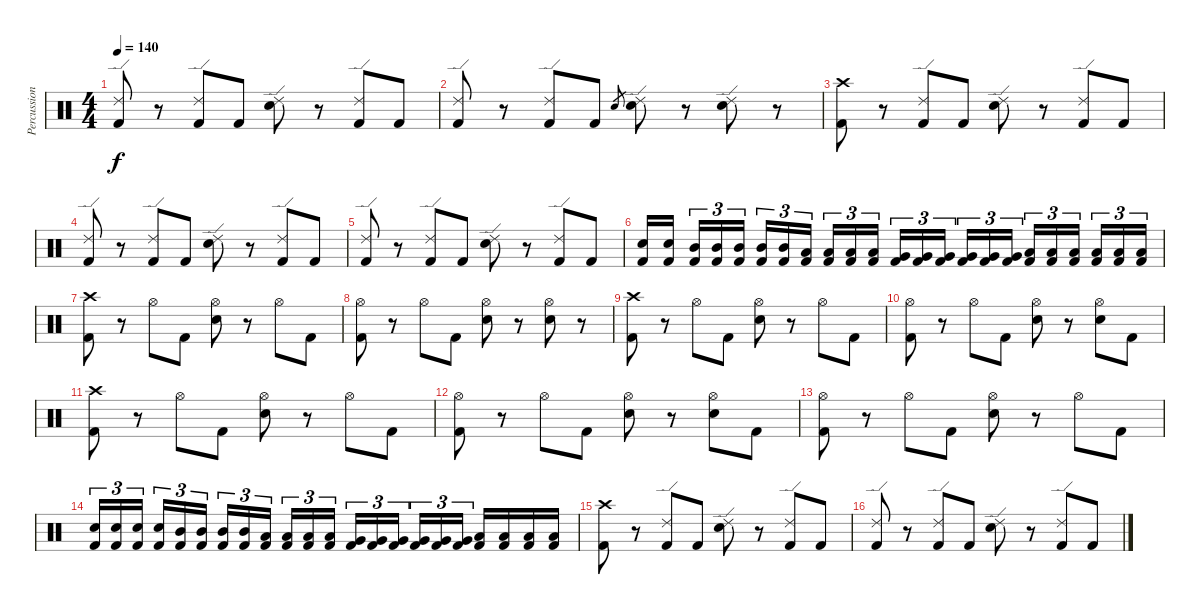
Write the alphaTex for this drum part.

\track ("Percussion" "Percussion") {instrument percussion}
\staff {score}
\articulation defaults
\ts (4 4)
\tempo 140
\clef neutral
\ks c
("Ride (edge) 2" "Kick (hit) 2").8{dy f} r.8 ("Ride (edge) 2" "Kick (hit) 2").8 "Kick (hit) 2".8 ("Ride (edge) 2" "Snare (hit) 2").8 r.8 ("Ride (edge) 2" "Kick (hit) 2").8 "Kick (hit) 2".8 |
("Ride (edge) 2" "Kick (hit) 2").8 r.8 ("Ride (edge) 2" "Kick (hit) 2").8 "Kick (hit) 2".8 "Snare (hit) 2".8{gr} ("Ride (edge) 2" "Snare (hit) 2").8 r.8 ("Ride (edge) 2" "Snare (hit) 2").8 r.8 |
("Crash high (hit)" "Kick (hit) 2").8 r.8 ("Ride (edge) 2" "Kick (hit) 2").8 "Kick (hit) 2".8 ("Ride (edge) 2" "Snare (hit) 2").8 r.8 ("Ride (edge) 2" "Kick (hit) 2").8 "Kick (hit) 2".8 |
("Ride (edge) 2" "Kick (hit) 2").8 r.8 ("Ride (edge) 2" "Kick (hit) 2").8 "Kick (hit) 2".8 ("Ride (edge) 2" "Snare (hit) 2").8 r.8 ("Ride (edge) 2" "Kick (hit) 2").8 "Kick (hit) 2".8 |
("Ride (edge) 2" "Kick (hit) 2").8 r.8 ("Ride (edge) 2" "Kick (hit) 2").8 "Kick (hit) 2".8 ("Ride (edge) 2" "Snare (hit) 2").8 r.8 ("Ride (edge) 2" "Kick (hit) 2").8 "Kick (hit) 2".8 |
("Snare (hit) 2" "Kick (hit) 2").16 ("Snare (hit) 2" "Kick (hit) 2").16 ("Mid Tom (hit)" "Kick (hit) 2").16{tu (3 2)} ("Mid Tom (hit)" "Kick (hit) 2").16{tu (3 2)} ("Mid Tom (hit)" "Kick (hit) 2").16{tu (3 2)} ("Mid Tom (hit)" "Kick (hit) 2").16{tu (3 2)} ("Mid Tom (hit)" "Kick (hit) 2").16{tu (3 2)} ("Low Tom (hit)" "Kick (hit) 2").16{tu (3 2)} ("Low Tom (hit)" "Kick (hit) 2").16{tu (3 2)} ("Low Tom (hit)" "Kick (hit) 2").16{tu (3 2)} ("Low Tom (hit)" "Kick (hit) 2").16{tu (3 2)} ("Very Low Tom (hit)" "Kick (hit) 2").16{tu (3 2)} ("Very Low Tom (hit)" "Kick (hit) 2").16{tu (3 2)} ("Very Low Tom (hit)" "Kick (hit) 2").16{tu (3 2)} ("Very Low Tom (hit)" "Kick (hit) 2").16{tu (3 2)} ("Very Low Tom (hit)" "Kick (hit) 2").16{tu (3 2)} ("Very Low Tom (hit)" "Kick (hit) 2").16{tu (3 2)} ("Low Floor Tom (hit)" "Kick (hit) 2").16{tu (3 2)} ("Low Floor Tom (hit)" "Kick (hit) 2").16{tu (3 2)} ("Low Floor Tom (hit)" "Kick (hit) 2").16{tu (3 2)} ("Low Floor Tom (hit)" "Kick (hit) 2").16{tu (3 2)} ("Low Floor Tom (hit)" "Kick (hit) 2").16{tu (3 2)} ("Low Floor Tom (hit)" "Kick (hit) 2").16{tu (3 2)} |
("Crash high (hit)" "Kick (hit) 2").8 r.8 "Hi-Hat (open)".8 "Kick (hit) 2".8 ("Hi-Hat (open)" "Snare (hit) 2").8 r.8 "Hi-Hat (open)".8 "Kick (hit) 2".8 |
("Hi-Hat (open)" "Kick (hit) 2").8 r.8 "Hi-Hat (open)".8 "Kick (hit) 2".8 ("Hi-Hat (open)" "Snare (hit) 2").8 r.8 ("Hi-Hat (open)" "Snare (hit) 2").8 r.8 |
("Crash high (hit)" "Kick (hit) 2").8 r.8 "Hi-Hat (open)".8 "Kick (hit) 2".8 ("Hi-Hat (open)" "Snare (hit) 2").8 r.8 "Hi-Hat (open)".8 "Kick (hit) 2".8 |
("Hi-Hat (open)" "Kick (hit) 2").8 r.8 "Hi-Hat (open)".8 "Kick (hit) 2".8 ("Hi-Hat (open)" "Snare (hit) 2").8 r.8 ("Hi-Hat (open)" "Snare (hit) 2").8 "Kick (hit) 2".8 |
("Crash high (hit)" "Kick (hit) 2").8 r.8 "Hi-Hat (open)".8 "Kick (hit) 2".8 ("Hi-Hat (open)" "Snare (hit) 2").8 r.8 "Hi-Hat (open)".8 "Kick (hit) 2".8 |
("Hi-Hat (open)" "Kick (hit) 2").8 r.8 "Hi-Hat (open)".8 "Kick (hit) 2".8 ("Hi-Hat (open)" "Snare (hit) 2").8 r.8 ("Hi-Hat (open)" "Snare (hit) 2").8 "Kick (hit) 2".8 |
("Hi-Hat (open)" "Kick (hit) 2").8 r.8 "Hi-Hat (open)".8 "Kick (hit) 2".8 ("Hi-Hat (open)" "Snare (hit) 2").8 r.8 "Hi-Hat (open)".8 "Kick (hit) 2".8 |
("Snare (hit) 2" "Kick (hit) 2").16{tu (3 2)} ("Snare (hit) 2" "Kick (hit) 2").16{tu (3 2)} ("Snare (hit) 2" "Kick (hit) 2").16{tu (3 2)} ("Snare (hit) 2" "Kick (hit) 2").16{tu (3 2)} ("Mid Tom (hit)" "Kick (hit) 2").16{tu (3 2)} ("Mid Tom (hit)" "Kick (hit) 2").16{tu (3 2)} ("Mid Tom (hit)" "Kick (hit) 2").16{tu (3 2)} ("Mid Tom (hit)" "Kick (hit) 2").16{tu (3 2)} ("Low Tom (hit)" "Kick (hit) 2").16{tu (3 2)} ("Low Tom (hit)" "Kick (hit) 2").16{tu (3 2)} ("Low Tom (hit)" "Kick (hit) 2").16{tu (3 2)} ("Low Tom (hit)" "Kick (hit) 2").16{tu (3 2)} ("Very Low Tom (hit)" "Kick (hit) 2").16{tu (3 2)} ("Very Low Tom (hit)" "Kick (hit) 2").16{tu (3 2)} ("Very Low Tom (hit)" "Kick (hit) 2").16{tu (3 2)} ("Very Low Tom (hit)" "Kick (hit) 2").16{tu (3 2)} ("Very Low Tom (hit)" "Kick (hit) 2").16{tu (3 2)} ("Very Low Tom (hit)" "Kick (hit) 2").16{tu (3 2)} ("Low Floor Tom (hit)" "Kick (hit) 2").16 ("Low Floor Tom (hit)" "Kick (hit) 2").16 ("Low Floor Tom (hit)" "Kick (hit) 2").16 ("Low Floor Tom (hit)" "Kick (hit) 2").16 |
("Crash high (hit)" "Kick (hit) 2").8 r.8 ("Ride (edge) 2" "Kick (hit) 2").8 "Kick (hit) 2".8 ("Ride (edge) 2" "Snare (hit) 2").8 r.8 ("Ride (edge) 2" "Kick (hit) 2").8 "Kick (hit) 2".8 |
("Ride (edge) 2" "Kick (hit) 2").8 r.8 ("Ride (edge) 2" "Kick (hit) 2").8 "Kick (hit) 2".8 ("Ride (edge) 2" "Snare (hit) 2").8 r.8 ("Ride (edge) 2" "Kick (hit) 2").8 "Kick (hit) 2".8
